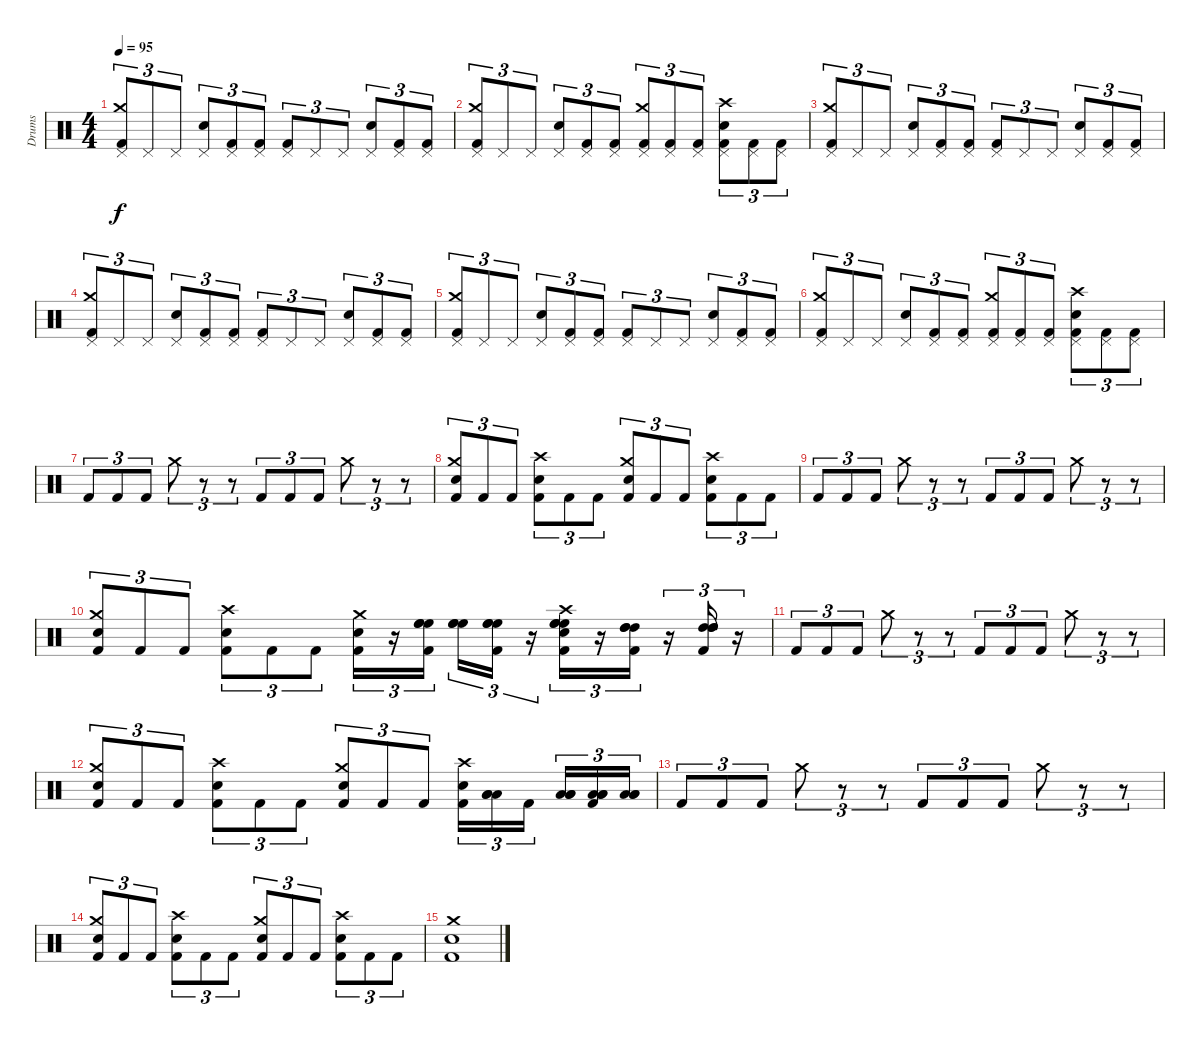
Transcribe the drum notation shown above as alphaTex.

\track ("Drums" "Drums") {instrument percussion}
\staff {score}
\articulation defaults
\ts (4 4)
\tempo 95
\clef neutral
\ks c
("Kick (hit) 2" "Crash medium (hit)" "Pedal Hi-Hat (hit)").8{tu (3 2) dy f} "Pedal Hi-Hat (hit)".8{tu (3 2)} "Pedal Hi-Hat (hit)".8{tu (3 2)} ("Snare (hit) 2" "Pedal Hi-Hat (hit)").8{tu (3 2)} ("Kick (hit) 2" "Pedal Hi-Hat (hit)").8{tu (3 2)} ("Kick (hit) 2" "Pedal Hi-Hat (hit)").8{tu (3 2)} ("Kick (hit) 2" "Pedal Hi-Hat (hit)").8{tu (3 2)} "Pedal Hi-Hat (hit)".8{tu (3 2)} "Pedal Hi-Hat (hit)".8{tu (3 2)} ("Snare (hit) 2" "Pedal Hi-Hat (hit)").8{tu (3 2)} ("Kick (hit) 2" "Pedal Hi-Hat (hit)").8{tu (3 2)} ("Kick (hit) 2" "Pedal Hi-Hat (hit)").8{tu (3 2)} |
("Kick (hit) 2" "Crash medium (hit)" "Pedal Hi-Hat (hit)").8{tu (3 2)} "Pedal Hi-Hat (hit)".8{tu (3 2)} "Pedal Hi-Hat (hit)".8{tu (3 2)} ("Snare (hit) 2" "Pedal Hi-Hat (hit)").8{tu (3 2)} ("Kick (hit) 2" "Pedal Hi-Hat (hit)").8{tu (3 2)} ("Kick (hit) 2" "Pedal Hi-Hat (hit)").8{tu (3 2)} ("Kick (hit) 2" "Crash medium (hit)" "Pedal Hi-Hat (hit)").8{tu (3 2)} ("Kick (hit) 2" "Pedal Hi-Hat (hit)").8{tu (3 2)} ("Kick (hit) 2" "Pedal Hi-Hat (hit)").8{tu (3 2)} ("Kick (hit) 2" "Crash high (hit)" "Snare (hit) 2" "Pedal Hi-Hat (hit)").8{tu (3 2)} ("Kick (hit) 2" "Pedal Hi-Hat (hit)").8{tu (3 2)} ("Kick (hit) 2" "Pedal Hi-Hat (hit)").8{tu (3 2)} |
("Kick (hit) 2" "Crash medium (hit)" "Pedal Hi-Hat (hit)").8{tu (3 2)} "Pedal Hi-Hat (hit)".8{tu (3 2)} "Pedal Hi-Hat (hit)".8{tu (3 2)} ("Snare (hit) 2" "Pedal Hi-Hat (hit)").8{tu (3 2)} ("Kick (hit) 2" "Pedal Hi-Hat (hit)").8{tu (3 2)} ("Kick (hit) 2" "Pedal Hi-Hat (hit)").8{tu (3 2)} ("Kick (hit) 2" "Pedal Hi-Hat (hit)").8{tu (3 2)} "Pedal Hi-Hat (hit)".8{tu (3 2)} "Pedal Hi-Hat (hit)".8{tu (3 2)} ("Snare (hit) 2" "Pedal Hi-Hat (hit)").8{tu (3 2)} ("Kick (hit) 2" "Pedal Hi-Hat (hit)").8{tu (3 2)} ("Kick (hit) 2" "Pedal Hi-Hat (hit)").8{tu (3 2)} |
("Kick (hit) 2" "Crash medium (hit)" "Pedal Hi-Hat (hit)").8{tu (3 2)} "Pedal Hi-Hat (hit)".8{tu (3 2)} "Pedal Hi-Hat (hit)".8{tu (3 2)} ("Snare (hit) 2" "Pedal Hi-Hat (hit)").8{tu (3 2)} ("Kick (hit) 2" "Pedal Hi-Hat (hit)").8{tu (3 2)} ("Kick (hit) 2" "Pedal Hi-Hat (hit)").8{tu (3 2)} ("Kick (hit) 2" "Pedal Hi-Hat (hit)").8{tu (3 2)} "Pedal Hi-Hat (hit)".8{tu (3 2)} "Pedal Hi-Hat (hit)".8{tu (3 2)} ("Snare (hit) 2" "Pedal Hi-Hat (hit)").8{tu (3 2)} ("Kick (hit) 2" "Pedal Hi-Hat (hit)").8{tu (3 2)} ("Kick (hit) 2" "Pedal Hi-Hat (hit)").8{tu (3 2)} |
("Kick (hit) 2" "Crash medium (hit)" "Pedal Hi-Hat (hit)").8{tu (3 2)} "Pedal Hi-Hat (hit)".8{tu (3 2)} "Pedal Hi-Hat (hit)".8{tu (3 2)} ("Snare (hit) 2" "Pedal Hi-Hat (hit)").8{tu (3 2)} ("Kick (hit) 2" "Pedal Hi-Hat (hit)").8{tu (3 2)} ("Kick (hit) 2" "Pedal Hi-Hat (hit)").8{tu (3 2)} ("Kick (hit) 2" "Pedal Hi-Hat (hit)").8{tu (3 2)} "Pedal Hi-Hat (hit)".8{tu (3 2)} "Pedal Hi-Hat (hit)".8{tu (3 2)} ("Snare (hit) 2" "Pedal Hi-Hat (hit)").8{tu (3 2)} ("Kick (hit) 2" "Pedal Hi-Hat (hit)").8{tu (3 2)} ("Kick (hit) 2" "Pedal Hi-Hat (hit)").8{tu (3 2)} |
("Kick (hit) 2" "Crash medium (hit)" "Pedal Hi-Hat (hit)").8{tu (3 2)} "Pedal Hi-Hat (hit)".8{tu (3 2)} "Pedal Hi-Hat (hit)".8{tu (3 2)} ("Snare (hit) 2" "Pedal Hi-Hat (hit)").8{tu (3 2)} ("Kick (hit) 2" "Pedal Hi-Hat (hit)").8{tu (3 2)} ("Kick (hit) 2" "Pedal Hi-Hat (hit)").8{tu (3 2)} ("Kick (hit) 2" "Crash medium (hit)" "Pedal Hi-Hat (hit)").8{tu (3 2)} ("Kick (hit) 2" "Pedal Hi-Hat (hit)").8{tu (3 2)} ("Kick (hit) 2" "Pedal Hi-Hat (hit)").8{tu (3 2)} ("Kick (hit) 2" "Crash high (hit)" "Snare (hit) 2" "Pedal Hi-Hat (hit)").8{tu (3 2)} ("Kick (hit) 2" "Pedal Hi-Hat (hit)").8{tu (3 2)} ("Kick (hit) 2" "Pedal Hi-Hat (hit)").8{tu (3 2)} |
"Kick (hit) 2".8{tu (3 2)} "Kick (hit) 2".8{tu (3 2)} "Kick (hit) 2".8{tu (3 2)} "Crash medium (hit)".8{tu (3 2)} r.8{tu (3 2)} r.8{tu (3 2)} "Kick (hit) 2".8{tu (3 2)} "Kick (hit) 2".8{tu (3 2)} "Kick (hit) 2".8{tu (3 2)} "Crash medium (hit)".8{tu (3 2)} r.8{tu (3 2)} r.8{tu (3 2)} |
("Kick (hit) 2" "Crash medium (hit)" "Snare (hit) 2").8{tu (3 2)} "Kick (hit) 2".8{tu (3 2)} "Kick (hit) 2".8{tu (3 2)} ("Kick (hit) 2" "Crash high (hit)" "Snare (hit) 2").8{tu (3 2)} "Kick (hit) 2".8{tu (3 2)} "Kick (hit) 2".8{tu (3 2)} ("Kick (hit) 2" "Crash medium (hit)" "Snare (hit) 2").8{tu (3 2)} "Kick (hit) 2".8{tu (3 2)} "Kick (hit) 2".8{tu (3 2)} ("Kick (hit) 2" "Crash high (hit)" "Snare (hit) 2").8{tu (3 2)} "Kick (hit) 2".8{tu (3 2)} "Kick (hit) 2".8{tu (3 2)} |
"Kick (hit) 2".8{tu (3 2)} "Kick (hit) 2".8{tu (3 2)} "Kick (hit) 2".8{tu (3 2)} "Crash medium (hit)".8{tu (3 2)} r.8{tu (3 2)} r.8{tu (3 2)} "Kick (hit) 2".8{tu (3 2)} "Kick (hit) 2".8{tu (3 2)} "Kick (hit) 2".8{tu (3 2)} "Crash medium (hit)".8{tu (3 2)} r.8{tu (3 2)} r.8{tu (3 2)} |
("Kick (hit) 2" "Crash medium (hit)" "Snare (hit) 2").8{tu (3 2)} "Kick (hit) 2".8{tu (3 2)} "Kick (hit) 2".8{tu (3 2)} ("Kick (hit) 2" "Crash high (hit)" "Snare (hit) 2").8{tu (3 2)} "Kick (hit) 2".8{tu (3 2)} "Kick (hit) 2".8{tu (3 2)} ("Kick (hit) 2" "Crash medium (hit)" "Snare (hit) 2").16{tu (3 2)} r.16{tu (3 2)} ("Kick (hit) 2" "High Floor Tom (hit)" "High Floor Tom (hit)" "High Floor Tom (hit)").16{tu (3 2) beam splitsecondary} ("High Floor Tom (hit)" "High Floor Tom (hit)" "High Floor Tom (hit)").16{tu (3 2)} ("Kick (hit) 2" "High Floor Tom (hit)" "High Floor Tom (hit)" "High Floor Tom (hit)").16{tu (3 2)} r.16{tu (3 2)} ("Kick (hit) 2" "Crash high (hit)" "Snare (hit) 2" "High Floor Tom (hit)" "High Floor Tom (hit)" "High Floor Tom (hit)").16{tu (3 2)} r.16{tu (3 2)} ("Kick (hit) 2" "High Tom (hit)" "High Tom (hit)" "High Tom (hit)").16{tu (3 2)} r.16{tu (3 2)} ("Kick (hit) 2" "High Tom (hit)" "High Tom (hit)" "High Tom (hit)").16{tu (3 2)} r.16{tu (3 2)} |
"Kick (hit) 2".8{tu (3 2)} "Kick (hit) 2".8{tu (3 2)} "Kick (hit) 2".8{tu (3 2)} "Crash medium (hit)".8{tu (3 2)} r.8{tu (3 2)} r.8{tu (3 2)} "Kick (hit) 2".8{tu (3 2)} "Kick (hit) 2".8{tu (3 2)} "Kick (hit) 2".8{tu (3 2)} "Crash medium (hit)".8{tu (3 2)} r.8{tu (3 2)} r.8{tu (3 2)} |
("Kick (hit) 2" "Crash medium (hit)" "Snare (hit) 2").8{tu (3 2)} "Kick (hit) 2".8{tu (3 2)} "Kick (hit) 2".8{tu (3 2)} ("Kick (hit) 2" "Crash high (hit)" "Snare (hit) 2").8{tu (3 2)} "Kick (hit) 2".8{tu (3 2)} "Kick (hit) 2".8{tu (3 2)} ("Kick (hit) 2" "Crash medium (hit)" "Snare (hit) 2").8{tu (3 2)} "Kick (hit) 2".8{tu (3 2)} "Kick (hit) 2".8{tu (3 2)} ("Kick (hit) 2" "Crash high (hit)" "Snare (hit) 2").16{tu (3 2)} ("Low Tom (hit)" "Low Tom (hit)" "Low Tom (hit)").16{tu (3 2)} "Kick (hit) 2".16{tu (3 2) beam splitsecondary} ("Low Tom (hit)" "Low Tom (hit)" "Low Tom (hit)").16{tu (3 2)} ("Kick (hit) 2" "Low Tom (hit)" "Low Tom (hit)" "Low Tom (hit)").16{tu (3 2)} ("Low Floor Tom (hit)" "Low Floor Tom (hit)" "Low Floor Tom (hit)").16{tu (3 2)} |
"Kick (hit) 2".8{tu (3 2)} "Kick (hit) 2".8{tu (3 2)} "Kick (hit) 2".8{tu (3 2)} "Crash medium (hit)".8{tu (3 2)} r.8{tu (3 2)} r.8{tu (3 2)} "Kick (hit) 2".8{tu (3 2)} "Kick (hit) 2".8{tu (3 2)} "Kick (hit) 2".8{tu (3 2)} "Crash medium (hit)".8{tu (3 2)} r.8{tu (3 2)} r.8{tu (3 2)} |
("Kick (hit) 2" "Crash medium (hit)" "Snare (hit) 2").8{tu (3 2)} "Kick (hit) 2".8{tu (3 2)} "Kick (hit) 2".8{tu (3 2)} ("Kick (hit) 2" "Crash high (hit)" "Snare (hit) 2").8{tu (3 2)} "Kick (hit) 2".8{tu (3 2)} "Kick (hit) 2".8{tu (3 2)} ("Kick (hit) 2" "Crash medium (hit)" "Snare (hit) 2").8{tu (3 2)} "Kick (hit) 2".8{tu (3 2)} "Kick (hit) 2".8{tu (3 2)} ("Kick (hit) 2" "Crash high (hit)" "Snare (hit) 2").8{tu (3 2)} "Kick (hit) 2".8{tu (3 2)} "Kick (hit) 2".8{tu (3 2)} |
("Kick (hit) 2" "Crash medium (hit)" "Snare (hit) 2").1
